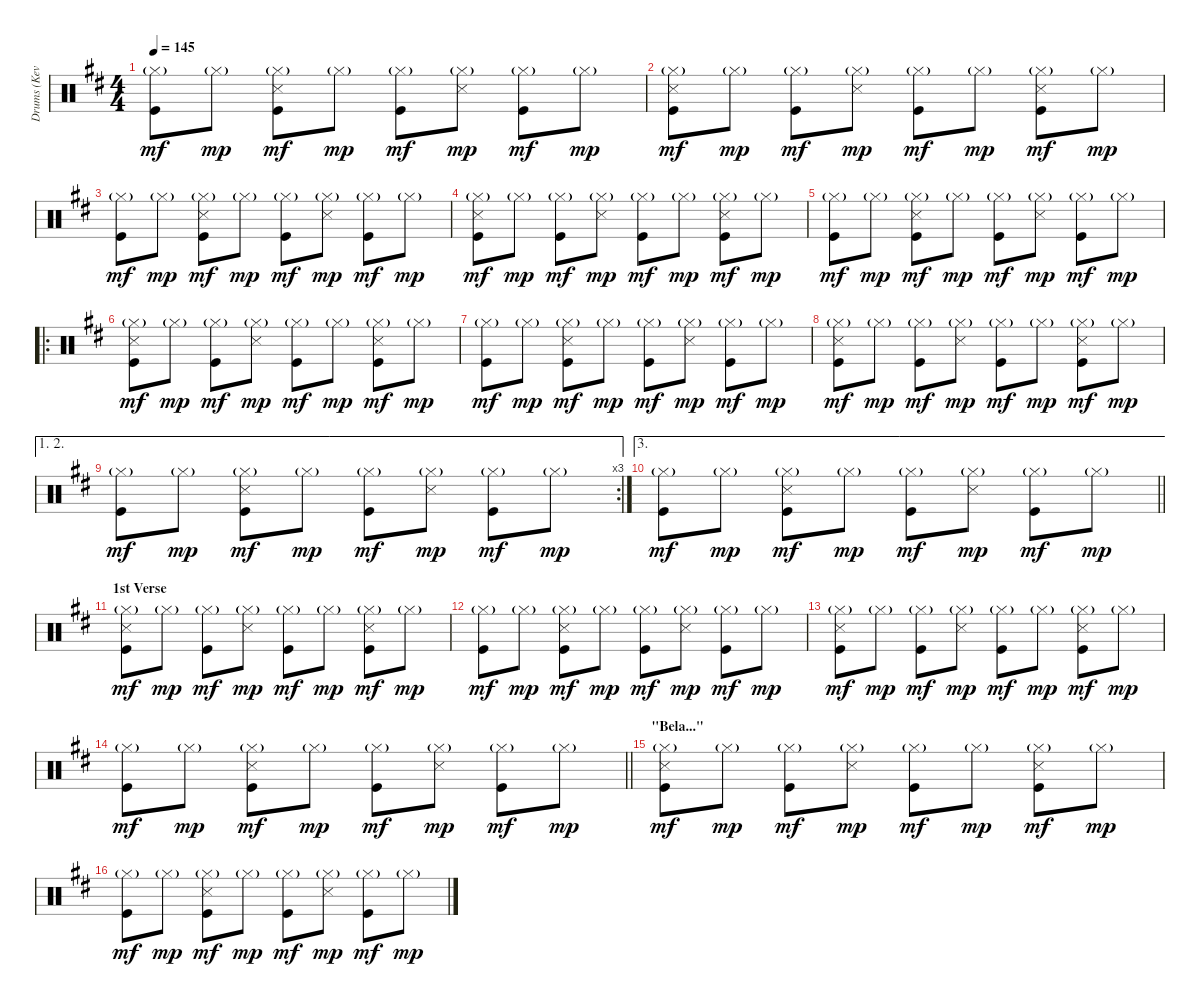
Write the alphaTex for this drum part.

\track ("Drums (Kevin Haskins)" "Drums (Kev") {instrument percussion}
\staff {score}
\articulation defaults
\ts (4 4)
\tempo 145
\clef neutral
\ks d
("Hi-Hat (closed)"{g} "Kick (hit)").8{dy mf} "Hi-Hat (closed)"{g}.8{dy mp} ("Hi-Hat (closed)"{g} "Snare (side stick) 3" "Kick (hit)").8{dy mf} "Hi-Hat (closed)"{g}.8{dy mp} ("Hi-Hat (closed)"{g} "Kick (hit)").8{dy mf} ("Hi-Hat (closed)"{g} "Snare (side stick) 3").8{dy mp} ("Hi-Hat (closed)"{g} "Kick (hit)").8{dy mf} "Hi-Hat (closed)"{g}.8{dy mp} |
("Hi-Hat (closed)"{g} "Snare (side stick) 3" "Kick (hit)").8{dy mf} "Hi-Hat (closed)"{g}.8{dy mp} ("Hi-Hat (closed)"{g} "Kick (hit)").8{dy mf} ("Hi-Hat (closed)"{g} "Snare (side stick) 3").8{dy mp} ("Hi-Hat (closed)"{g} "Kick (hit)").8{dy mf} "Hi-Hat (closed)"{g}.8{dy mp} ("Hi-Hat (closed)"{g} "Snare (side stick) 3" "Kick (hit)").8{dy mf} "Hi-Hat (closed)"{g}.8{dy mp} |
("Hi-Hat (closed)"{g} "Kick (hit)").8{dy mf} "Hi-Hat (closed)"{g}.8{dy mp} ("Hi-Hat (closed)"{g} "Snare (side stick) 3" "Kick (hit)").8{dy mf} "Hi-Hat (closed)"{g}.8{dy mp} ("Hi-Hat (closed)"{g} "Kick (hit)").8{dy mf} ("Hi-Hat (closed)"{g} "Snare (side stick) 3").8{dy mp} ("Hi-Hat (closed)"{g} "Kick (hit)").8{dy mf} "Hi-Hat (closed)"{g}.8{dy mp} |
("Hi-Hat (closed)"{g} "Snare (side stick) 3" "Kick (hit)").8{dy mf} "Hi-Hat (closed)"{g}.8{dy mp} ("Hi-Hat (closed)"{g} "Kick (hit)").8{dy mf} ("Hi-Hat (closed)"{g} "Snare (side stick) 3").8{dy mp} ("Hi-Hat (closed)"{g} "Kick (hit)").8{dy mf} "Hi-Hat (closed)"{g}.8{dy mp} ("Hi-Hat (closed)"{g} "Snare (side stick) 3" "Kick (hit)").8{dy mf} "Hi-Hat (closed)"{g}.8{dy mp} |
("Hi-Hat (closed)"{g} "Kick (hit)").8{dy mf} "Hi-Hat (closed)"{g}.8{dy mp} ("Hi-Hat (closed)"{g} "Snare (side stick) 3" "Kick (hit)").8{dy mf} "Hi-Hat (closed)"{g}.8{dy mp} ("Hi-Hat (closed)"{g} "Kick (hit)").8{dy mf} ("Hi-Hat (closed)"{g} "Snare (side stick) 3").8{dy mp} ("Hi-Hat (closed)"{g} "Kick (hit)").8{dy mf} "Hi-Hat (closed)"{g}.8{dy mp} |
\ro
("Hi-Hat (closed)"{g} "Snare (side stick) 3" "Kick (hit)").8{dy mf} "Hi-Hat (closed)"{g}.8{dy mp} ("Hi-Hat (closed)"{g} "Kick (hit)").8{dy mf} ("Hi-Hat (closed)"{g} "Snare (side stick) 3").8{dy mp} ("Hi-Hat (closed)"{g} "Kick (hit)").8{dy mf} "Hi-Hat (closed)"{g}.8{dy mp} ("Hi-Hat (closed)"{g} "Snare (side stick) 3" "Kick (hit)").8{dy mf} "Hi-Hat (closed)"{g}.8{dy mp} |
("Hi-Hat (closed)"{g} "Kick (hit)").8{dy mf} "Hi-Hat (closed)"{g}.8{dy mp} ("Hi-Hat (closed)"{g} "Snare (side stick) 3" "Kick (hit)").8{dy mf} "Hi-Hat (closed)"{g}.8{dy mp} ("Hi-Hat (closed)"{g} "Kick (hit)").8{dy mf} ("Hi-Hat (closed)"{g} "Snare (side stick) 3").8{dy mp} ("Hi-Hat (closed)"{g} "Kick (hit)").8{dy mf} "Hi-Hat (closed)"{g}.8{dy mp} |
("Hi-Hat (closed)"{g} "Snare (side stick) 3" "Kick (hit)").8{dy mf} "Hi-Hat (closed)"{g}.8{dy mp} ("Hi-Hat (closed)"{g} "Kick (hit)").8{dy mf} ("Hi-Hat (closed)"{g} "Snare (side stick) 3").8{dy mp} ("Hi-Hat (closed)"{g} "Kick (hit)").8{dy mf} "Hi-Hat (closed)"{g}.8{dy mp} ("Hi-Hat (closed)"{g} "Snare (side stick) 3" "Kick (hit)").8{dy mf} "Hi-Hat (closed)"{g}.8{dy mp} |
\ae (1 2)
\rc 3
("Hi-Hat (closed)"{g} "Kick (hit)").8{dy mf} "Hi-Hat (closed)"{g}.8{dy mp} ("Hi-Hat (closed)"{g} "Snare (side stick) 3" "Kick (hit)").8{dy mf} "Hi-Hat (closed)"{g}.8{dy mp} ("Hi-Hat (closed)"{g} "Kick (hit)").8{dy mf} ("Hi-Hat (closed)"{g} "Snare (side stick) 3").8{dy mp} ("Hi-Hat (closed)"{g} "Kick (hit)").8{dy mf} "Hi-Hat (closed)"{g}.8{dy mp} |
\ae 3
\barLineRight lightlight
("Hi-Hat (closed)"{g} "Kick (hit)").8{dy mf} "Hi-Hat (closed)"{g}.8{dy mp} ("Hi-Hat (closed)"{g} "Snare (side stick) 3" "Kick (hit)").8{dy mf} "Hi-Hat (closed)"{g}.8{dy mp} ("Hi-Hat (closed)"{g} "Kick (hit)").8{dy mf} ("Hi-Hat (closed)"{g} "Snare (side stick) 3").8{dy mp} ("Hi-Hat (closed)"{g} "Kick (hit)").8{dy mf} "Hi-Hat (closed)"{g}.8{dy mp} |
\section ("" "1st Verse")
("Hi-Hat (closed)"{g} "Snare (side stick) 3" "Kick (hit)").8{dy mf} "Hi-Hat (closed)"{g}.8{dy mp} ("Hi-Hat (closed)"{g} "Kick (hit)").8{dy mf} ("Hi-Hat (closed)"{g} "Snare (side stick) 3").8{dy mp} ("Hi-Hat (closed)"{g} "Kick (hit)").8{dy mf} "Hi-Hat (closed)"{g}.8{dy mp} ("Hi-Hat (closed)"{g} "Snare (side stick) 3" "Kick (hit)").8{dy mf} "Hi-Hat (closed)"{g}.8{dy mp} |
("Hi-Hat (closed)"{g} "Kick (hit)").8{dy mf} "Hi-Hat (closed)"{g}.8{dy mp} ("Hi-Hat (closed)"{g} "Snare (side stick) 3" "Kick (hit)").8{dy mf} "Hi-Hat (closed)"{g}.8{dy mp} ("Hi-Hat (closed)"{g} "Kick (hit)").8{dy mf} ("Hi-Hat (closed)"{g} "Snare (side stick) 3").8{dy mp} ("Hi-Hat (closed)"{g} "Kick (hit)").8{dy mf} "Hi-Hat (closed)"{g}.8{dy mp} |
("Hi-Hat (closed)"{g} "Snare (side stick) 3" "Kick (hit)").8{dy mf} "Hi-Hat (closed)"{g}.8{dy mp} ("Hi-Hat (closed)"{g} "Kick (hit)").8{dy mf} ("Hi-Hat (closed)"{g} "Snare (side stick) 3").8{dy mp} ("Hi-Hat (closed)"{g} "Kick (hit)").8{dy mf} "Hi-Hat (closed)"{g}.8{dy mp} ("Hi-Hat (closed)"{g} "Snare (side stick) 3" "Kick (hit)").8{dy mf} "Hi-Hat (closed)"{g}.8{dy mp} |
\barLineRight lightlight
("Hi-Hat (closed)"{g} "Kick (hit)").8{dy mf} "Hi-Hat (closed)"{g}.8{dy mp} ("Hi-Hat (closed)"{g} "Snare (side stick) 3" "Kick (hit)").8{dy mf} "Hi-Hat (closed)"{g}.8{dy mp} ("Hi-Hat (closed)"{g} "Kick (hit)").8{dy mf} ("Hi-Hat (closed)"{g} "Snare (side stick) 3").8{dy mp} ("Hi-Hat (closed)"{g} "Kick (hit)").8{dy mf} "Hi-Hat (closed)"{g}.8{dy mp} |
\section ("" "\"Bela...\"")
("Hi-Hat (closed)"{g} "Snare (side stick) 3" "Kick (hit)").8{dy mf} "Hi-Hat (closed)"{g}.8{dy mp} ("Hi-Hat (closed)"{g} "Kick (hit)").8{dy mf} ("Hi-Hat (closed)"{g} "Snare (side stick) 3").8{dy mp} ("Hi-Hat (closed)"{g} "Kick (hit)").8{dy mf} "Hi-Hat (closed)"{g}.8{dy mp} ("Hi-Hat (closed)"{g} "Snare (side stick) 3" "Kick (hit)").8{dy mf} "Hi-Hat (closed)"{g}.8{dy mp} |
("Hi-Hat (closed)"{g} "Kick (hit)").8{dy mf} "Hi-Hat (closed)"{g}.8{dy mp} ("Hi-Hat (closed)"{g} "Snare (side stick) 3" "Kick (hit)").8{dy mf} "Hi-Hat (closed)"{g}.8{dy mp} ("Hi-Hat (closed)"{g} "Kick (hit)").8{dy mf} ("Hi-Hat (closed)"{g} "Snare (side stick) 3").8{dy mp} ("Hi-Hat (closed)"{g} "Kick (hit)").8{dy mf} "Hi-Hat (closed)"{g}.8{dy mp}
